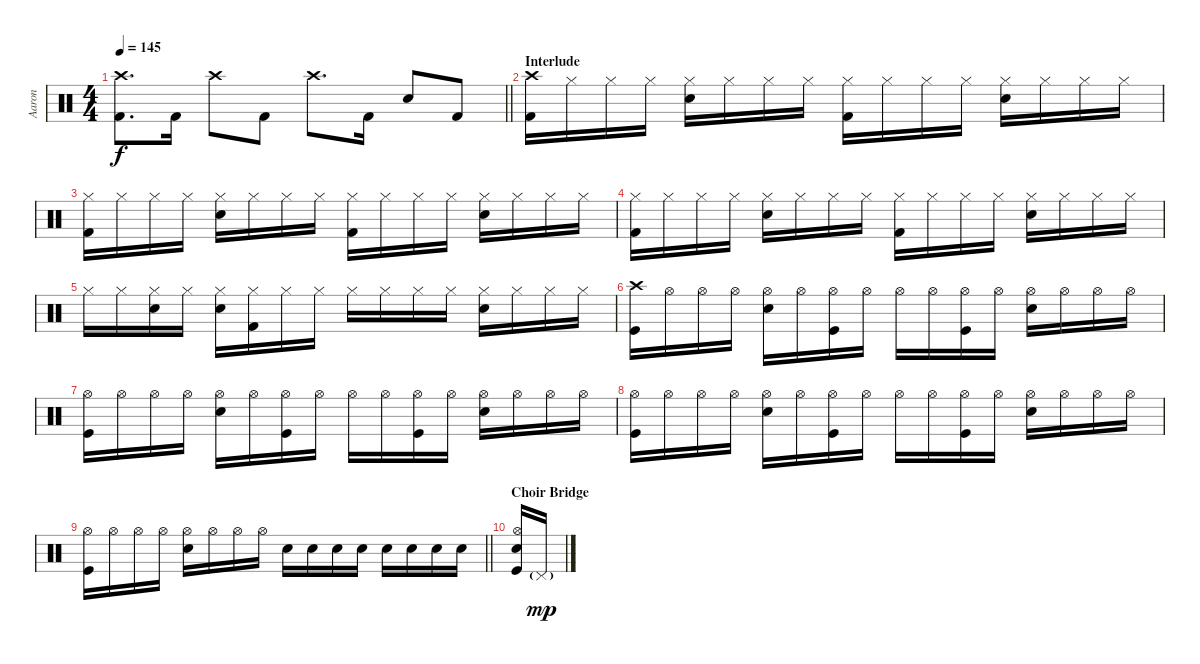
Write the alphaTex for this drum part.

\track ("Aaron" "Aaron") {instrument percussion}
\staff {score}
\articulation defaults
\ts (4 4)
\tempo 145
\clef neutral
\barLineRight lightlight
\ks c
("Crash high (hit)" "Kick (hit) 2").8{d dy f} "Kick (hit) 2".16 "Crash high (hit)".8 "Kick (hit) 2".8 "Crash high (hit)".8{d} "Kick (hit) 2".16 "Snare (hit) 2".8 "Kick (hit) 2".8 |
\section ("" "Interlude")
("Crash high (hit)" "Kick (hit) 2").16 "Hi-Hat (closed)".16 "Hi-Hat (closed)".16 "Hi-Hat (closed)".16 ("Hi-Hat (closed)" "Snare (hit) 2").16 "Hi-Hat (closed)".16 "Hi-Hat (closed)".16 "Hi-Hat (closed)".16 ("Hi-Hat (closed)" "Kick (hit) 2").16 "Hi-Hat (closed)".16 "Hi-Hat (closed)".16 "Hi-Hat (closed)".16 ("Hi-Hat (closed)" "Snare (hit) 2").16 "Hi-Hat (closed)".16 "Hi-Hat (closed)".16 "Hi-Hat (closed)".16 |
("Hi-Hat (closed)" "Kick (hit) 2").16 "Hi-Hat (closed)".16 "Hi-Hat (closed)".16 "Hi-Hat (closed)".16 ("Hi-Hat (closed)" "Snare (hit) 2").16 "Hi-Hat (closed)".16 "Hi-Hat (closed)".16 "Hi-Hat (closed)".16 ("Hi-Hat (closed)" "Kick (hit) 2").16 "Hi-Hat (closed)".16 "Hi-Hat (closed)".16 "Hi-Hat (closed)".16 ("Hi-Hat (closed)" "Snare (hit) 2").16 "Hi-Hat (closed)".16 "Hi-Hat (closed)".16 "Hi-Hat (closed)".16 |
("Hi-Hat (closed)" "Kick (hit) 2").16 "Hi-Hat (closed)".16 "Hi-Hat (closed)".16 "Hi-Hat (closed)".16 ("Hi-Hat (closed)" "Snare (hit) 2").16 "Hi-Hat (closed)".16 "Hi-Hat (closed)".16 "Hi-Hat (closed)".16 ("Hi-Hat (closed)" "Kick (hit) 2").16 "Hi-Hat (closed)".16 "Hi-Hat (closed)".16 "Hi-Hat (closed)".16 ("Hi-Hat (closed)" "Snare (hit) 2").16 "Hi-Hat (closed)".16 "Hi-Hat (closed)".16 "Hi-Hat (closed)".16 |
"Hi-Hat (closed)".16 "Hi-Hat (closed)".16 ("Hi-Hat (closed)" "Snare (hit) 2").16 "Hi-Hat (closed)".16 ("Hi-Hat (closed)" "Snare (hit) 2").16 ("Hi-Hat (closed)" "Kick (hit) 2").16 "Hi-Hat (closed)".16 "Hi-Hat (closed)".16 "Hi-Hat (closed)".16 "Hi-Hat (closed)".16 "Hi-Hat (closed)".16 "Hi-Hat (closed)".16 ("Hi-Hat (closed)" "Snare (hit) 2").16 "Hi-Hat (closed)".16 "Hi-Hat (closed)".16 "Hi-Hat (closed)".16 |
("Crash high (hit)" "Kick (hit)").16 "Hi-Hat (open)".16 "Hi-Hat (open)".16 "Hi-Hat (open)".16 ("Hi-Hat (open)" "Electric Snare (hit)").16 "Hi-Hat (open)".16 ("Hi-Hat (open)" "Kick (hit)").16 "Hi-Hat (open)".16 "Hi-Hat (open)".16 "Hi-Hat (open)".16 ("Hi-Hat (open)" "Kick (hit)").16 "Hi-Hat (open)".16 ("Hi-Hat (open)" "Electric Snare (hit)").16 "Hi-Hat (open)".16 "Hi-Hat (open)".16 "Hi-Hat (open)".16 |
("Hi-Hat (open)" "Kick (hit)").16 "Hi-Hat (open)".16 "Hi-Hat (open)".16 "Hi-Hat (open)".16 ("Hi-Hat (open)" "Electric Snare (hit)").16 "Hi-Hat (open)".16 ("Hi-Hat (open)" "Kick (hit)").16 "Hi-Hat (open)".16 "Hi-Hat (open)".16 "Hi-Hat (open)".16 ("Hi-Hat (open)" "Kick (hit)").16 "Hi-Hat (open)".16 ("Hi-Hat (open)" "Electric Snare (hit)").16 "Hi-Hat (open)".16 "Hi-Hat (open)".16 "Hi-Hat (open)".16 |
("Hi-Hat (open)" "Kick (hit)").16 "Hi-Hat (open)".16 "Hi-Hat (open)".16 "Hi-Hat (open)".16 ("Hi-Hat (open)" "Electric Snare (hit)").16 "Hi-Hat (open)".16 ("Hi-Hat (open)" "Kick (hit)").16 "Hi-Hat (open)".16 "Hi-Hat (open)".16 "Hi-Hat (open)".16 ("Hi-Hat (open)" "Kick (hit)").16 "Hi-Hat (open)".16 ("Hi-Hat (open)" "Electric Snare (hit)").16 "Hi-Hat (open)".16 "Hi-Hat (open)".16 "Hi-Hat (open)".16 |
\barLineRight lightlight
("Hi-Hat (open)" "Kick (hit)").16 "Hi-Hat (open)".16 "Hi-Hat (open)".16 "Hi-Hat (open)".16 ("Hi-Hat (open)" "Electric Snare (hit)").16 "Hi-Hat (open)".16 "Hi-Hat (open)".16 "Hi-Hat (open)".16 "Electric Snare (hit)".16 "Electric Snare (hit)".16 "Electric Snare (hit)".16 "Electric Snare (hit)".16 "Electric Snare (hit)".16 "Electric Snare (hit)".16 "Electric Snare (hit)".16 "Electric Snare (hit)".16 |
\section ("" "Choir Bridge")
("Hi-Hat (open)" "Electric Snare (hit)" "Kick (hit)").16 "Pedal Hi-Hat (hit)"{g}.16{dy mp}
